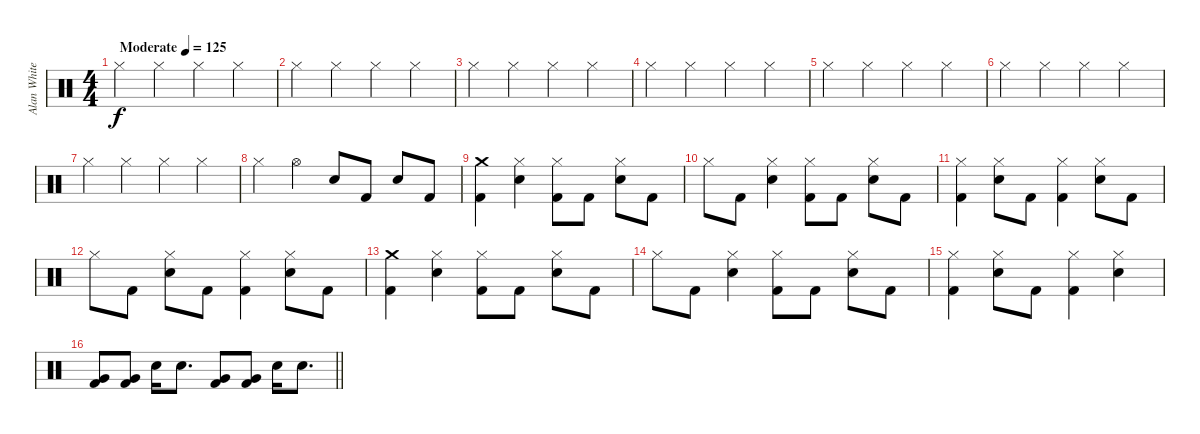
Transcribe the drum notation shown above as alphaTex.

\track ("Alan White" "Alan White") {instrument percussion}
\staff {score}
\articulation defaults
\ts (4 4)
\tempo (125 "Moderate")
\clef neutral
\ks c "Hi-Hat (closed)".4{dy f} "Hi-Hat (closed)".4 "Hi-Hat (closed)".4 "Hi-Hat (closed)".4
|
"Hi-Hat (closed)".4 "Hi-Hat (closed)".4 "Hi-Hat (closed)".4 "Hi-Hat (closed)".4 |
"Hi-Hat (closed)".4 "Hi-Hat (closed)".4 "Hi-Hat (closed)".4 "Hi-Hat (closed)".4 |
"Hi-Hat (closed)".4 "Hi-Hat (closed)".4 "Hi-Hat (closed)".4 "Hi-Hat (closed)".4 |
"Hi-Hat (closed)".4 "Hi-Hat (closed)".4 "Hi-Hat (closed)".4 "Hi-Hat (closed)".4 |
"Hi-Hat (closed)".4 "Hi-Hat (closed)".4 "Hi-Hat (closed)".4 "Hi-Hat (closed)".4 |
"Hi-Hat (closed)".4 "Hi-Hat (closed)".4 "Hi-Hat (closed)".4 "Hi-Hat (closed)".4 |
"Hi-Hat (closed)".4 "Hi-Hat (open)".4 "Snare (hit) 2".8 "Kick (hit) 2".8 "Snare (hit) 2".8 "Kick (hit) 2".8 |
("Crash medium (hit)" "Kick (hit) 2").4 ("Hi-Hat (closed)" "Snare (hit) 2").4 ("Hi-Hat (closed)" "Kick (hit) 2").8 "Kick (hit) 2".8 ("Hi-Hat (closed)" "Snare (hit) 2").8 "Kick (hit) 2".8 |
"Hi-Hat (closed)".8 "Kick (hit) 2".8 ("Hi-Hat (closed)" "Snare (hit) 2").4 ("Hi-Hat (closed)" "Kick (hit) 2").8 "Kick (hit) 2".8 ("Hi-Hat (closed)" "Snare (hit) 2").8 "Kick (hit) 2".8 |
("Hi-Hat (closed)" "Kick (hit) 2").4 ("Hi-Hat (closed)" "Snare (hit) 2").8 "Kick (hit) 2".8 ("Hi-Hat (closed)" "Kick (hit) 2").4 ("Hi-Hat (closed)" "Snare (hit) 2").8 "Kick (hit) 2".8 |
"Hi-Hat (closed)".8 "Kick (hit) 2".8 ("Hi-Hat (closed)" "Snare (hit) 2").8 "Kick (hit) 2".8 ("Hi-Hat (closed)" "Kick (hit) 2").4 ("Hi-Hat (closed)" "Snare (hit) 2").8 "Kick (hit) 2".8 |
("Crash medium (hit)" "Kick (hit) 2").4 ("Hi-Hat (closed)" "Snare (hit) 2").4 ("Hi-Hat (closed)" "Kick (hit) 2").8 "Kick (hit) 2".8 ("Hi-Hat (closed)" "Snare (hit) 2").8 "Kick (hit) 2".8 |
"Hi-Hat (closed)".8 "Kick (hit) 2".8 ("Hi-Hat (closed)" "Snare (hit) 2").4 ("Hi-Hat (closed)" "Kick (hit) 2").8 "Kick (hit) 2".8 ("Hi-Hat (closed)" "Snare (hit) 2").8 "Kick (hit) 2".8 |
("Hi-Hat (closed)" "Kick (hit) 2").4 ("Hi-Hat (closed)" "Snare (hit) 2").8 "Kick (hit) 2".8 ("Hi-Hat (closed)" "Kick (hit) 2").4 ("Hi-Hat (closed)" "Snare (hit) 2").4 |
\barLineRight lightlight
("Very Low Tom (hit)" "Kick (hit) 2").8 ("Very Low Tom (hit)" "Kick (hit) 2").8 "Snare (hit) 2".16 "Snare (hit) 2".8{d} ("Very Low Tom (hit)" "Kick (hit) 2").8 ("Very Low Tom (hit)" "Kick (hit) 2").8 "Snare (hit) 2".16 "Snare (hit) 2".8{d}
